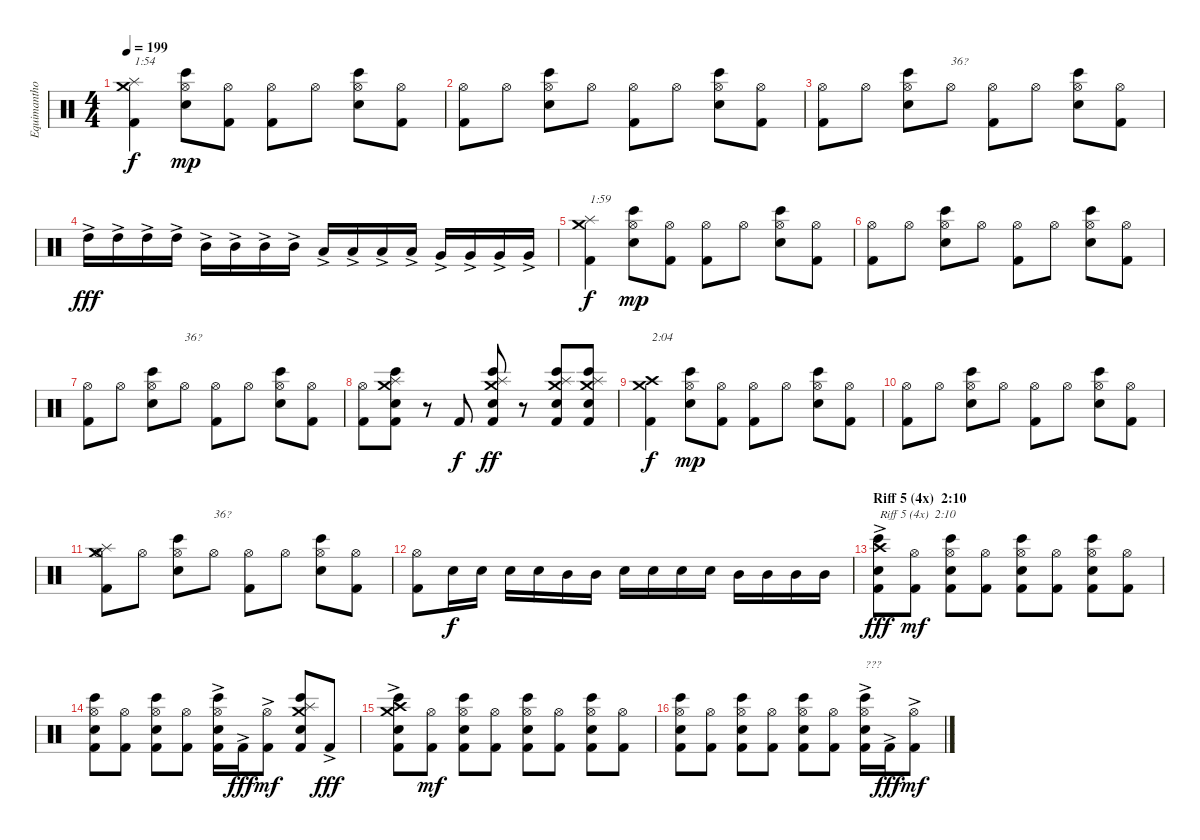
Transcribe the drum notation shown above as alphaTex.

\track ("Equimanthorn" "Equimantho") {instrument percussion}
\staff {score}
\articulation defaults
\ts (4 4)
\tempo 199
\clef neutral
\ks c
("Kick (hit) 2" "Splash (hit)" "Crash medium (hit)").4{txt "1:54" dy f} ("Bongo High (hit)" "Electric Snare (hit)" "Hi-Hat (open)").8{dy mp} ("Kick (hit) 2" "Hi-Hat (open)").8 ("Kick (hit) 2" "Hi-Hat (open)").8 "Hi-Hat (open)".8 ("Bongo High (hit)" "Electric Snare (hit)" "Hi-Hat (open)").8 ("Kick (hit) 2" "Hi-Hat (open)").8 |
("Kick (hit) 2" "Hi-Hat (open)").8 "Hi-Hat (open)".8 ("Bongo High (hit)" "Electric Snare (hit)" "Hi-Hat (open)").8 "Hi-Hat (open)".8 ("Kick (hit) 2" "Hi-Hat (open)").8 "Hi-Hat (open)".8 ("Bongo High (hit)" "Electric Snare (hit)" "Hi-Hat (open)").8 ("Kick (hit) 2" "Hi-Hat (open)").8 |
("Kick (hit) 2" "Hi-Hat (open)").8 "Hi-Hat (open)".8 ("Bongo High (hit)" "Electric Snare (hit)" "Hi-Hat (open)").8 "Hi-Hat (open)".8{txt "36?"} ("Kick (hit) 2" "Hi-Hat (open)").8 "Hi-Hat (open)".8 ("Bongo High (hit)" "Electric Snare (hit)" "Hi-Hat (open)").8 ("Kick (hit) 2" "Hi-Hat (open)").8 |
"High Tom (hit)"{ac}.16{dy fff} "High Tom (hit)"{ac}.16 "High Tom (hit)"{ac}.16 "High Tom (hit)"{ac}.16 "Mid Tom (hit)"{ac}.16 "Mid Tom (hit)"{ac}.16 "Mid Tom (hit)"{ac}.16 "Mid Tom (hit)"{ac}.16 "Low Tom (hit)"{ac}.16 "Low Tom (hit)"{ac}.16 "Low Tom (hit)"{ac}.16 "Low Tom (hit)"{ac}.16 "Very Low Tom (hit)"{ac}.16 "Very Low Tom (hit)"{ac}.16 "Very Low Tom (hit)"{ac}.16 "Very Low Tom (hit)"{ac}.16 |
("Kick (hit) 2" "Splash (hit)" "Crash medium (hit)").4{txt "1:59" dy f} ("Bongo High (hit)" "Electric Snare (hit)" "Hi-Hat (open)").8{dy mp} ("Kick (hit) 2" "Hi-Hat (open)").8 ("Kick (hit) 2" "Hi-Hat (open)").8 "Hi-Hat (open)".8 ("Bongo High (hit)" "Electric Snare (hit)" "Hi-Hat (open)").8 ("Kick (hit) 2" "Hi-Hat (open)").8 |
("Kick (hit) 2" "Hi-Hat (open)").8 "Hi-Hat (open)".8 ("Bongo High (hit)" "Electric Snare (hit)" "Hi-Hat (open)").8 "Hi-Hat (open)".8 ("Kick (hit) 2" "Hi-Hat (open)").8 "Hi-Hat (open)".8 ("Bongo High (hit)" "Electric Snare (hit)" "Hi-Hat (open)").8 ("Kick (hit) 2" "Hi-Hat (open)").8 |
("Kick (hit) 2" "Hi-Hat (open)").8 "Hi-Hat (open)".8 ("Bongo High (hit)" "Electric Snare (hit)" "Hi-Hat (open)").8 "Hi-Hat (open)".8{txt "36?"} ("Kick (hit) 2" "Hi-Hat (open)").8 "Hi-Hat (open)".8 ("Bongo High (hit)" "Electric Snare (hit)" "Hi-Hat (open)").8 ("Kick (hit) 2" "Hi-Hat (open)").8 |
("Kick (hit) 2" "Hi-Hat (open)").8 ("Kick (hit) 2" "Bongo High (hit)" "Electric Snare (hit)" "Splash (hit)" "Crash medium (hit)").8 r.8 "Kick (hit) 2".8{dy f} ("Kick (hit) 2" "Bongo High (hit)" "Electric Snare (hit)" "Splash (hit)" "Crash medium (hit)").8{dy ff} r.8 ("Kick (hit) 2" "Bongo High (hit)" "Electric Snare (hit)" "Splash (hit)" "Crash medium (hit)").8 ("Kick (hit) 2" "Bongo High (hit)" "Electric Snare (hit)" "Splash (hit)" "Crash medium (hit)").8 |
("Kick (hit) 2" "Crash high (hit)" "Crash medium (hit)").4{txt "2:04" dy f} ("Bongo High (hit)" "Electric Snare (hit)" "Hi-Hat (open)").8{dy mp} ("Kick (hit) 2" "Hi-Hat (open)").8 ("Kick (hit) 2" "Hi-Hat (open)").8 "Hi-Hat (open)".8 ("Bongo High (hit)" "Electric Snare (hit)" "Hi-Hat (open)").8 ("Kick (hit) 2" "Hi-Hat (open)").8 |
("Kick (hit) 2" "Hi-Hat (open)").8 "Hi-Hat (open)".8 ("Bongo High (hit)" "Electric Snare (hit)" "Hi-Hat (open)").8 "Hi-Hat (open)".8 ("Kick (hit) 2" "Hi-Hat (open)").8 "Hi-Hat (open)".8 ("Bongo High (hit)" "Electric Snare (hit)" "Hi-Hat (open)").8 ("Kick (hit) 2" "Hi-Hat (open)").8 |
("Kick (hit) 2" "Hi-Hat (open)" "Splash (hit)" "Crash medium (hit)").8 "Hi-Hat (open)".8 ("Bongo High (hit)" "Electric Snare (hit)" "Hi-Hat (open)").8 "Hi-Hat (open)".8{txt "36?"} ("Kick (hit) 2" "Hi-Hat (open)").8 "Hi-Hat (open)".8 ("Bongo High (hit)" "Electric Snare (hit)" "Hi-Hat (open)").8 ("Kick (hit) 2" "Hi-Hat (open)").8 |
("Kick (hit) 2" "Hi-Hat (open)").8 "Electric Snare (hit)".16{dy f} "Electric Snare (hit)".16 "Electric Snare (hit)".16 "Electric Snare (hit)".16 "Mid Tom (hit)".16 "Mid Tom (hit)".16 "Electric Snare (hit)".16 "Electric Snare (hit)".16 "Electric Snare (hit)".16 "Electric Snare (hit)".16 "Mid Tom (hit)".16 "Mid Tom (hit)".16 "Mid Tom (hit)".16 "Mid Tom (hit)".16 |
\section ("" "Riff 5 (4x)  2:10")
("Kick (hit) 2" "Bongo High (hit)" "Electric Snare (hit)" "Crash high (hit)"{ac}).8{txt "Riff 5 (4x)  2:10" dy fff} ("Kick (hit) 2" "Hi-Hat (open)").8{dy mf} ("Kick (hit) 2" "Bongo High (hit)" "Electric Snare (hit)" "Hi-Hat (open)").8 ("Kick (hit) 2" "Hi-Hat (open)").8 ("Kick (hit) 2" "Bongo High (hit)" "Electric Snare (hit)" "Hi-Hat (open)").8 ("Kick (hit) 2" "Hi-Hat (open)").8 ("Kick (hit) 2" "Bongo High (hit)" "Electric Snare (hit)" "Hi-Hat (open)").8 ("Kick (hit) 2" "Hi-Hat (open)").8 |
("Kick (hit) 2" "Bongo High (hit)" "Electric Snare (hit)" "Hi-Hat (open)").8 ("Kick (hit) 2" "Hi-Hat (open)").8 ("Kick (hit) 2" "Bongo High (hit)" "Electric Snare (hit)" "Hi-Hat (open)").8 ("Kick (hit) 2" "Hi-Hat (open)").8 ("Kick (hit) 2"{ac} "Bongo High (hit)" "Electric Snare (hit)" "Hi-Hat (open)").16 "Kick (hit) 2"{ac}.16{dy fff} ("Kick (hit) 2"{ac} "Hi-Hat (open)").8{dy mf} ("Kick (hit) 2" "Bongo High (hit)" "Electric Snare (hit)" "Splash (hit)" "Crash medium (hit)").8 "Kick (hit) 2"{ac}.8{dy fff} |
("Kick (hit) 2" "Bongo High (hit)" "Electric Snare (hit)" "Crash high (hit)"{ac} "Crash medium (hit)").8 ("Kick (hit) 2" "Hi-Hat (open)").8{dy mf} ("Kick (hit) 2" "Bongo High (hit)" "Electric Snare (hit)" "Hi-Hat (open)").8 ("Kick (hit) 2" "Hi-Hat (open)").8 ("Kick (hit) 2" "Bongo High (hit)" "Electric Snare (hit)" "Hi-Hat (open)").8 ("Kick (hit) 2" "Hi-Hat (open)").8 ("Kick (hit) 2" "Bongo High (hit)" "Electric Snare (hit)" "Hi-Hat (open)").8 ("Kick (hit) 2" "Hi-Hat (open)").8 |
("Kick (hit) 2" "Bongo High (hit)" "Electric Snare (hit)" "Hi-Hat (open)").8 ("Kick (hit) 2" "Hi-Hat (open)").8 ("Kick (hit) 2" "Bongo High (hit)" "Electric Snare (hit)" "Hi-Hat (open)").8 ("Kick (hit) 2" "Hi-Hat (open)").8 ("Kick (hit) 2" "Bongo High (hit)" "Electric Snare (hit)" "Hi-Hat (open)").8 ("Kick (hit) 2" "Hi-Hat (open)").8 ("Kick (hit) 2"{ac} "Bongo High (hit)" "Electric Snare (hit)" "Hi-Hat (open)").16{txt "???"} "Kick (hit) 2"{ac}.16{dy fff} ("Kick (hit) 2"{ac} "Hi-Hat (open)").8{dy mf}
